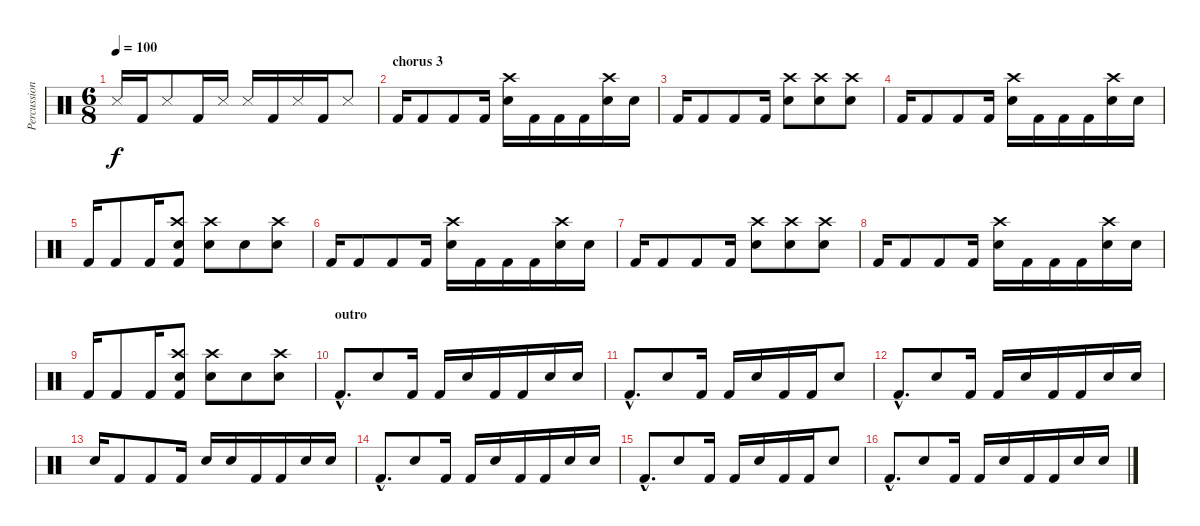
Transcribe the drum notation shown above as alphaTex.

\track ("Percussion" "Percussion") {instrument percussion}
\staff {score}
\articulation defaults
\ts (6 8)
\tempo 100
\clef neutral
\ks c "Snare (side stick) 3".16{dy f} "Kick (hit) 2".16 "Snare (side stick) 3".8 "Kick (hit) 2".16 "Snare (side stick) 3".16 "Snare (side stick) 3".16 "Kick (hit) 2".16 "Snare (side stick) 3".16 "Kick (hit) 2".16 "Snare (side stick) 3".8
|
\section ("" "chorus 3")
"Kick (hit) 2".16 "Kick (hit) 2".8 "Kick (hit) 2".8 "Kick (hit) 2".16 ("Crash high (hit)" "Snare (hit) 2").16 "Kick (hit) 2".16 "Kick (hit) 2".16 "Kick (hit) 2".16 ("Crash high (hit)" "Snare (hit) 2").16 "Snare (hit) 2".16 |
"Kick (hit) 2".16 "Kick (hit) 2".8 "Kick (hit) 2".8 "Kick (hit) 2".16 ("Crash high (hit)" "Snare (hit) 2").8 ("Crash high (hit)" "Snare (hit) 2").8 ("Crash high (hit)" "Snare (hit) 2").8 |
"Kick (hit) 2".16 "Kick (hit) 2".8 "Kick (hit) 2".8 "Kick (hit) 2".16 ("Crash high (hit)" "Snare (hit) 2").16 "Kick (hit) 2".16 "Kick (hit) 2".16 "Kick (hit) 2".16 ("Crash high (hit)" "Snare (hit) 2").16 "Snare (hit) 2".16 |
"Kick (hit) 2".16 "Kick (hit) 2".8 "Kick (hit) 2".16 ("Crash high (hit)" "Snare (hit) 2" "Kick (hit) 2").8 ("Crash high (hit)" "Snare (hit) 2").8 "Snare (hit) 2".8 ("Crash high (hit)" "Snare (hit) 2").8 |
"Kick (hit) 2".16 "Kick (hit) 2".8 "Kick (hit) 2".8 "Kick (hit) 2".16 ("Crash high (hit)" "Snare (hit) 2").16 "Kick (hit) 2".16 "Kick (hit) 2".16 "Kick (hit) 2".16 ("Crash high (hit)" "Snare (hit) 2").16 "Snare (hit) 2".16 |
"Kick (hit) 2".16 "Kick (hit) 2".8 "Kick (hit) 2".8 "Kick (hit) 2".16 ("Crash high (hit)" "Snare (hit) 2").8 ("Crash high (hit)" "Snare (hit) 2").8 ("Crash high (hit)" "Snare (hit) 2").8 |
"Kick (hit) 2".16 "Kick (hit) 2".8 "Kick (hit) 2".8 "Kick (hit) 2".16 ("Crash high (hit)" "Snare (hit) 2").16 "Kick (hit) 2".16 "Kick (hit) 2".16 "Kick (hit) 2".16 ("Crash high (hit)" "Snare (hit) 2").16 "Snare (hit) 2".16 |
"Kick (hit) 2".16 "Kick (hit) 2".8 "Kick (hit) 2".16 ("Crash high (hit)" "Snare (hit) 2" "Kick (hit) 2").8 ("Crash high (hit)" "Snare (hit) 2").8 "Snare (hit) 2".8 ("Crash high (hit)" "Snare (hit) 2").8 |
\section ("" "outro")
"Kick (hit) 2"{hac}.8{d} "Snare (hit) 2".8 "Kick (hit) 2".16 "Kick (hit) 2".16 "Snare (hit) 2".16 "Kick (hit) 2".16 "Kick (hit) 2".16 "Snare (hit) 2".16 "Snare (hit) 2".16 |
"Kick (hit) 2"{hac}.8{d} "Snare (hit) 2".8 "Kick (hit) 2".16 "Kick (hit) 2".16 "Snare (hit) 2".16 "Kick (hit) 2".16 "Kick (hit) 2".16 "Snare (hit) 2".8 |
"Kick (hit) 2"{hac}.8{d} "Snare (hit) 2".8 "Kick (hit) 2".16 "Kick (hit) 2".16 "Snare (hit) 2".16 "Kick (hit) 2".16 "Kick (hit) 2".16 "Snare (hit) 2".16 "Snare (hit) 2".16 |
"Snare (hit) 2".16 "Kick (hit) 2".8 "Kick (hit) 2".8 "Kick (hit) 2".16 "Snare (hit) 2".16 "Snare (hit) 2".16 "Kick (hit) 2".16 "Kick (hit) 2".16 "Snare (hit) 2".16 "Snare (hit) 2".16 |
"Kick (hit) 2"{hac}.8{d} "Snare (hit) 2".8 "Kick (hit) 2".16 "Kick (hit) 2".16 "Snare (hit) 2".16 "Kick (hit) 2".16 "Kick (hit) 2".16 "Snare (hit) 2".16 "Snare (hit) 2".16 |
"Kick (hit) 2"{hac}.8{d} "Snare (hit) 2".8 "Kick (hit) 2".16 "Kick (hit) 2".16 "Snare (hit) 2".16 "Kick (hit) 2".16 "Kick (hit) 2".16 "Snare (hit) 2".8 |
"Kick (hit) 2"{hac}.8{d} "Snare (hit) 2".8 "Kick (hit) 2".16 "Kick (hit) 2".16 "Snare (hit) 2".16 "Kick (hit) 2".16 "Kick (hit) 2".16 "Snare (hit) 2".16 "Snare (hit) 2".16
